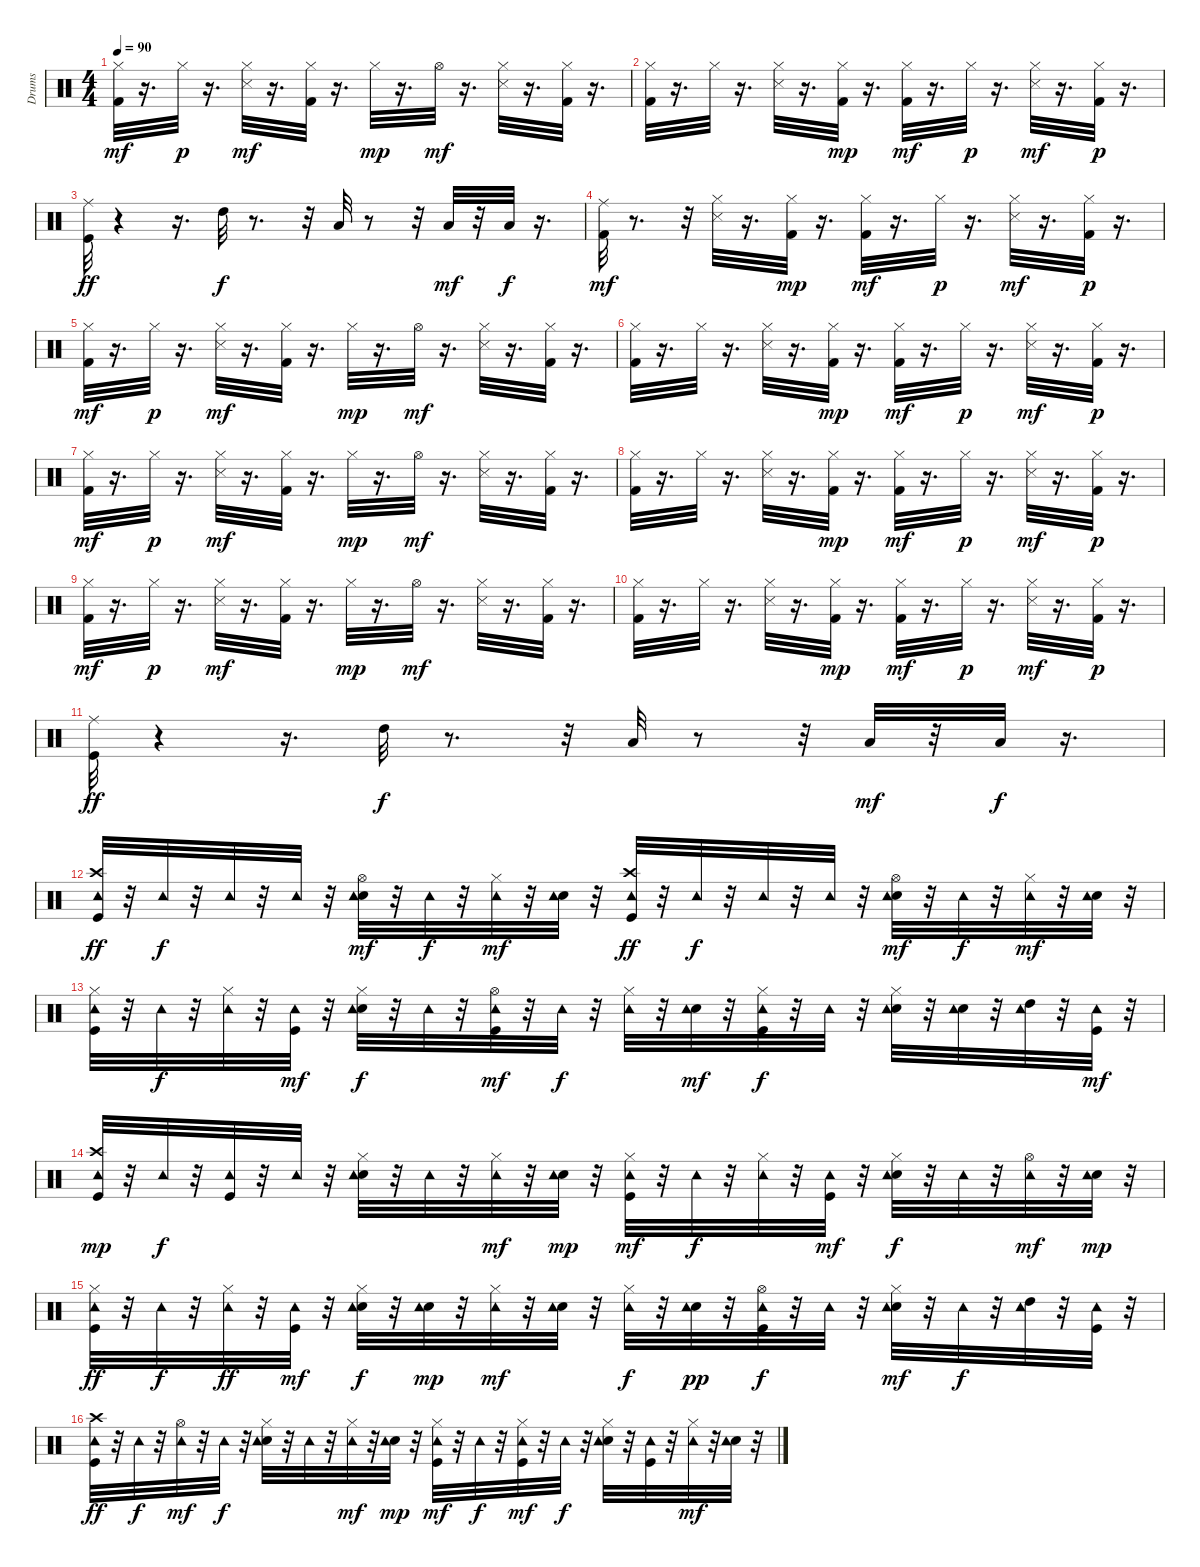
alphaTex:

\track ("Drums               " "Drums     ") {instrument percussion}
\staff {score}
\articulation defaults
\ts (4 4)
\tempo 90
\clef neutral
\ks c
("Kick (hit) 2" "Hi-Hat (closed)").32{dy mf} r.16{d} "Hi-Hat (closed)".32{dy p} r.16{d} ("Hi-Hat (closed)" "Snare (side stick) 3").32{dy mf} r.16{d} ("Hi-Hat (closed)" "Kick (hit) 2").32 r.16{d} "Hi-Hat (closed)".32{dy mp} r.16{d} "Hi-Hat (open)".32{dy mf} r.16{d} ("Hi-Hat (closed)" "Snare (side stick) 3").32 r.16{d} ("Hi-Hat (closed)" "Kick (hit) 2").32 r.16{d} |
("Hi-Hat (closed)" "Kick (hit) 2").32 r.16{d} "Hi-Hat (closed)".32 r.16{d} ("Snare (side stick) 3" "Hi-Hat (closed)").32 r.16{d} ("Hi-Hat (closed)" "Kick (hit) 2").32{dy mp} r.16{d} ("Kick (hit) 2" "Hi-Hat (closed)").32{dy mf} r.16{d} "Hi-Hat (closed)".32{dy p} r.16{d} ("Snare (side stick) 3" "Hi-Hat (closed)").32{dy mf} r.16{d} ("Kick (hit) 2" "Hi-Hat (closed)").32{dy p} r.16{d} |
("Ride (middle)" "Kick (hit)").32{dy ff} r.4 r.16{d} "High Tom (hit)".32{dy f} r.8{d} r.32 "Low Tom (hit)".32 r.8 r.32 "Low Floor Tom (hit)".32{dy mf} r.32 "Low Floor Tom (hit)".32{dy f} r.16{d} |
("Ride (middle)" "Kick (hit) 2").32{dy mf} r.8{d} r.32 ("Snare (side stick) 3" "Hi-Hat (closed)").32 r.16{d} ("Hi-Hat (closed)" "Kick (hit) 2").32{dy mp} r.16{d} ("Kick (hit) 2" "Hi-Hat (closed)").32{dy mf} r.16{d} "Hi-Hat (closed)".32{dy p} r.16{d} ("Snare (side stick) 3" "Hi-Hat (closed)").32{dy mf} r.16{d} ("Kick (hit) 2" "Hi-Hat (closed)").32{dy p} r.16{d} |
("Kick (hit) 2" "Hi-Hat (closed)").32{dy mf} r.16{d} "Hi-Hat (closed)".32{dy p} r.16{d} ("Hi-Hat (closed)" "Snare (side stick) 3").32{dy mf} r.16{d} ("Hi-Hat (closed)" "Kick (hit) 2").32 r.16{d} "Hi-Hat (closed)".32{dy mp} r.16{d} "Hi-Hat (open)".32{dy mf} r.16{d} ("Hi-Hat (closed)" "Snare (side stick) 3").32 r.16{d} ("Hi-Hat (closed)" "Kick (hit) 2").32 r.16{d} |
("Hi-Hat (closed)" "Kick (hit) 2").32 r.16{d} "Hi-Hat (closed)".32 r.16{d} ("Snare (side stick) 3" "Hi-Hat (closed)").32 r.16{d} ("Hi-Hat (closed)" "Kick (hit) 2").32{dy mp} r.16{d} ("Kick (hit) 2" "Hi-Hat (closed)").32{dy mf} r.16{d} "Hi-Hat (closed)".32{dy p} r.16{d} ("Snare (side stick) 3" "Hi-Hat (closed)").32{dy mf} r.16{d} ("Kick (hit) 2" "Hi-Hat (closed)").32{dy p} r.16{d} |
("Kick (hit) 2" "Hi-Hat (closed)").32{dy mf} r.16{d} "Hi-Hat (closed)".32{dy p} r.16{d} ("Hi-Hat (closed)" "Snare (side stick) 3").32{dy mf} r.16{d} ("Hi-Hat (closed)" "Kick (hit) 2").32 r.16{d} "Hi-Hat (closed)".32{dy mp} r.16{d} "Hi-Hat (open)".32{dy mf} r.16{d} ("Hi-Hat (closed)" "Snare (side stick) 3").32 r.16{d} ("Hi-Hat (closed)" "Kick (hit) 2").32 r.16{d} |
("Hi-Hat (closed)" "Kick (hit) 2").32 r.16{d} "Hi-Hat (closed)".32 r.16{d} ("Snare (side stick) 3" "Hi-Hat (closed)").32 r.16{d} ("Hi-Hat (closed)" "Kick (hit) 2").32{dy mp} r.16{d} ("Kick (hit) 2" "Hi-Hat (closed)").32{dy mf} r.16{d} "Hi-Hat (closed)".32{dy p} r.16{d} ("Snare (side stick) 3" "Hi-Hat (closed)").32{dy mf} r.16{d} ("Kick (hit) 2" "Hi-Hat (closed)").32{dy p} r.16{d} |
("Kick (hit) 2" "Hi-Hat (closed)").32{dy mf} r.16{d} "Hi-Hat (closed)".32{dy p} r.16{d} ("Hi-Hat (closed)" "Snare (side stick) 3").32{dy mf} r.16{d} ("Hi-Hat (closed)" "Kick (hit) 2").32 r.16{d} "Hi-Hat (closed)".32{dy mp} r.16{d} "Hi-Hat (open)".32{dy mf} r.16{d} ("Hi-Hat (closed)" "Snare (side stick) 3").32 r.16{d} ("Hi-Hat (closed)" "Kick (hit) 2").32 r.16{d} |
("Hi-Hat (closed)" "Kick (hit) 2").32 r.16{d} "Hi-Hat (closed)".32 r.16{d} ("Snare (side stick) 3" "Hi-Hat (closed)").32 r.16{d} ("Hi-Hat (closed)" "Kick (hit) 2").32{dy mp} r.16{d} ("Kick (hit) 2" "Hi-Hat (closed)").32{dy mf} r.16{d} "Hi-Hat (closed)".32{dy p} r.16{d} ("Snare (side stick) 3" "Hi-Hat (closed)").32{dy mf} r.16{d} ("Kick (hit) 2" "Hi-Hat (closed)").32{dy p} r.16{d} |
("Ride (middle)" "Kick (hit)").32{dy ff} r.4 r.16{d} "High Tom (hit)".32{dy f} r.8{d} r.32 "Low Tom (hit)".32 r.8 r.32 "Low Floor Tom (hit)".32{dy mf} r.32 "Low Floor Tom (hit)".32{dy f} r.16{d} |
("Crash high (hit)" "Kick (hit)" "Tambourine (hit)").32{dy ff} r.32 "Tambourine (hit)".32{dy f} r.32 "Tambourine (hit)".32 r.32 "Tambourine (hit)".32 r.32 ("Electric Snare (hit)" "Hi-Hat (open)" "Tambourine (hit)").32{dy mf} r.32 "Tambourine (hit)".32{dy f} r.32 ("Hi-Hat (closed)" "Tambourine (hit)").32{dy mf} r.32 ("Electric Snare (hit)" "Tambourine (hit)").32 r.32 ("Crash high (hit)" "Kick (hit)" "Tambourine (hit)").32{dy ff} r.32 "Tambourine (hit)".32{dy f} r.32 "Tambourine (hit)".32 r.32 "Tambourine (hit)".32 r.32 ("Electric Snare (hit)" "Hi-Hat (open)" "Tambourine (hit)").32{dy mf} r.32 "Tambourine (hit)".32{dy f} r.32 ("Hi-Hat (closed)" "Tambourine (hit)").32{dy mf} r.32 ("Electric Snare (hit)" "Tambourine (hit)").32 r.32 |
("Hi-Hat (closed)" "Kick (hit)" "Tambourine (hit)").32 r.32 "Tambourine (hit)".32{dy f} r.32 ("Hi-Hat (closed)" "Tambourine (hit)").32 r.32 ("Kick (hit)" "Tambourine (hit)").32{dy mf} r.32 ("Electric Snare (hit)" "Hi-Hat (closed)" "Tambourine (hit)").32{dy f} r.32 "Tambourine (hit)".32 r.32 ("Kick (hit)" "Hi-Hat (open)" "Tambourine (hit)").32{dy mf} r.32 "Tambourine (hit)".32{dy f} r.32 ("Hi-Hat (closed)" "Tambourine (hit)").32 r.32 ("Electric Snare (hit)" "Tambourine (hit)").32{dy mf} r.32 ("Hi-Hat (closed)" "Kick (hit)" "Tambourine (hit)").32{dy f} r.32 "Tambourine (hit)".32 r.32 ("Electric Snare (hit)" "Hi-Hat (closed)" "Tambourine (hit)").32 r.32 ("Electric Snare (hit)" "Tambourine (hit)").32 r.32 ("High Tom (hit)" "Tambourine (hit)").32 r.32 ("Kick (hit)" "Tambourine (hit)").32{dy mf} r.32 |
("Crash high (hit)" "Kick (hit)" "Tambourine (hit)").32{dy mp} r.32 "Tambourine (hit)".32{dy f} r.32 ("Kick (hit)" "Tambourine (hit)").32 r.32 "Tambourine (hit)".32 r.32 ("Hi-Hat (closed)" "Electric Snare (hit)" "Tambourine (hit)").32 r.32 "Tambourine (hit)".32 r.32 ("Hi-Hat (closed)" "Tambourine (hit)").32{dy mf} r.32 ("Electric Snare (hit)" "Tambourine (hit)").32{dy mp} r.32 ("Hi-Hat (closed)" "Kick (hit)" "Tambourine (hit)").32{dy mf} r.32 "Tambourine (hit)".32{dy f} r.32 ("Hi-Hat (closed)" "Tambourine (hit)").32 r.32 ("Kick (hit)" "Tambourine (hit)").32{dy mf} r.32 ("Electric Snare (hit)" "Hi-Hat (closed)" "Tambourine (hit)").32{dy f} r.32 "Tambourine (hit)".32 r.32 ("Hi-Hat (open)" "Tambourine (hit)").32{dy mf} r.32 ("Electric Snare (hit)" "Tambourine (hit)").32{dy mp} r.32 |
("Hi-Hat (closed)" "Kick (hit)" "Tambourine (hit)").32{dy ff} r.32 "Tambourine (hit)".32{dy f} r.32 ("Hi-Hat (closed)" "Tambourine (hit)").32{dy ff} r.32 ("Kick (hit)" "Tambourine (hit)").32{dy mf} r.32 ("Hi-Hat (closed)" "Electric Snare (hit)" "Tambourine (hit)").32{dy f} r.32 ("Electric Snare (hit)" "Tambourine (hit)").32{dy mp} r.32 ("Hi-Hat (closed)" "Tambourine (hit)").32{dy mf} r.32 ("Electric Snare (hit)" "Tambourine (hit)").32 r.32 ("Hi-Hat (closed)" "Tambourine (hit)").32{dy f} r.32 ("Electric Snare (hit)" "Tambourine (hit)").32{dy pp} r.32 ("Hi-Hat (open)" "Kick (hit)" "Tambourine (hit)").32{dy f} r.32 "Tambourine (hit)".32 r.32 ("Electric Snare (hit)" "Hi-Hat (closed)" "Tambourine (hit)").32{dy mf} r.32 "Tambourine (hit)".32{dy f} r.32 ("High Tom (hit)" "Tambourine (hit)").32 r.32 ("Kick (hit)" "Tambourine (hit)").32 r.32 |
("Crash high (hit)" "Kick (hit)" "Tambourine (hit)").32{dy ff} r.32 "Tambourine (hit)".32{dy f} r.32 ("Hi-Hat (open)" "Tambourine (hit)").32{dy mf} r.32 "Tambourine (hit)".32{dy f} r.32 ("Hi-Hat (closed)" "Electric Snare (hit)" "Tambourine (hit)").32 r.32 "Tambourine (hit)".32 r.32 ("Hi-Hat (closed)" "Tambourine (hit)").32{dy mf} r.32 ("Electric Snare (hit)" "Tambourine (hit)").32{dy mp} r.32 ("Hi-Hat (closed)" "Kick (hit)" "Tambourine (hit)").32{dy mf} r.32 "Tambourine (hit)".32{dy f} r.32 ("Kick (hit)" "Hi-Hat (closed)" "Tambourine (hit)").32{dy mf} r.32 "Tambourine (hit)".32{dy f} r.32 ("Hi-Hat (closed)" "Electric Snare (hit)" "Tambourine (hit)").32 r.32 ("Kick (hit)" "Tambourine (hit)").32 r.32 ("Hi-Hat (closed)" "Tambourine (hit)").32{dy mf} r.32 ("Electric Snare (hit)" "Tambourine (hit)").32 r.32
